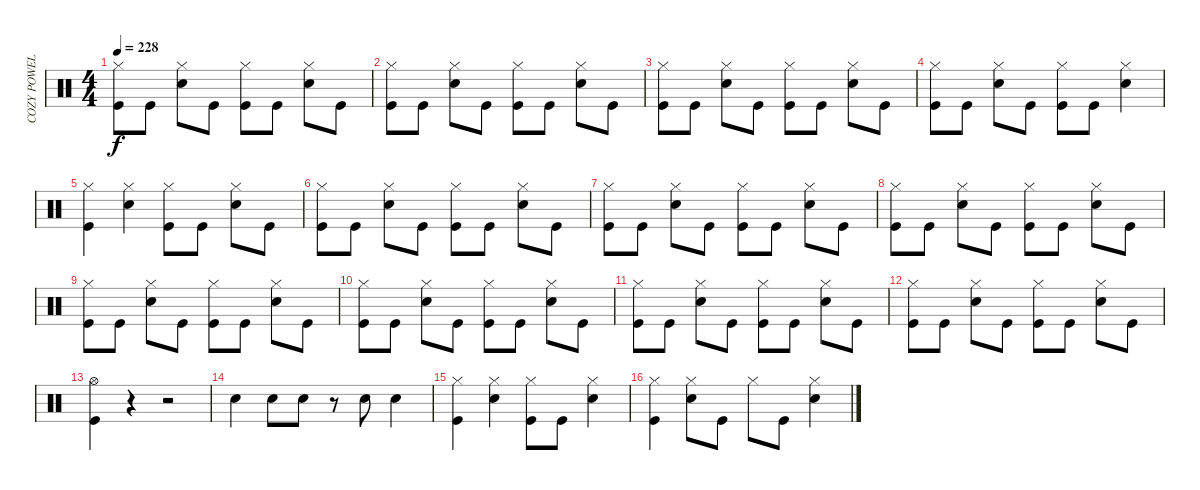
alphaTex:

\track ("COZY POWELL" "COZY POWEL") {instrument percussion}
\staff {score}
\articulation defaults
\ts (4 4)
\tempo 228
\clef neutral
\ks c
("Hi-Hat (closed)" "Kick (hit)").8{dy f} "Kick (hit)".8 ("Hi-Hat (closed)" "Snare (hit) 2").8 "Kick (hit)".8 ("Hi-Hat (closed)" "Kick (hit)").8 "Kick (hit)".8 ("Hi-Hat (closed)" "Snare (hit) 2").8 "Kick (hit)".8 |
("Hi-Hat (closed)" "Kick (hit)").8 "Kick (hit)".8 ("Hi-Hat (closed)" "Snare (hit) 2").8 "Kick (hit)".8 ("Hi-Hat (closed)" "Kick (hit)").8 "Kick (hit)".8 ("Hi-Hat (closed)" "Snare (hit) 2").8 "Kick (hit)".8 |
("Hi-Hat (closed)" "Kick (hit)").8 "Kick (hit)".8 ("Hi-Hat (closed)" "Snare (hit) 2").8 "Kick (hit)".8 ("Hi-Hat (closed)" "Kick (hit)").8 "Kick (hit)".8 ("Hi-Hat (closed)" "Snare (hit) 2").8 "Kick (hit)".8 |
("Hi-Hat (closed)" "Kick (hit)").8 "Kick (hit)".8 ("Hi-Hat (closed)" "Snare (hit) 2").8 "Kick (hit)".8 ("Hi-Hat (closed)" "Kick (hit)").8 "Kick (hit)".8 ("Hi-Hat (closed)" "Snare (hit) 2").4 |
("Hi-Hat (closed)" "Kick (hit)").4 ("Hi-Hat (closed)" "Snare (hit) 2").4 ("Hi-Hat (closed)" "Kick (hit)").8 "Kick (hit)".8 ("Hi-Hat (closed)" "Snare (hit) 2").8 "Kick (hit)".8 |
("Hi-Hat (closed)" "Kick (hit)").8 "Kick (hit)".8 ("Hi-Hat (closed)" "Snare (hit) 2").8 "Kick (hit)".8 ("Hi-Hat (closed)" "Kick (hit)").8 "Kick (hit)".8 ("Hi-Hat (closed)" "Snare (hit) 2").8 "Kick (hit)".8 |
("Hi-Hat (closed)" "Kick (hit)").8 "Kick (hit)".8 ("Hi-Hat (closed)" "Snare (hit) 2").8 "Kick (hit)".8 ("Hi-Hat (closed)" "Kick (hit)").8 "Kick (hit)".8 ("Hi-Hat (closed)" "Snare (hit) 2").8 "Kick (hit)".8 |
("Hi-Hat (closed)" "Kick (hit)").8 "Kick (hit)".8 ("Hi-Hat (closed)" "Snare (hit) 2").8 "Kick (hit)".8 ("Hi-Hat (closed)" "Kick (hit)").8 "Kick (hit)".8 ("Hi-Hat (closed)" "Snare (hit) 2").8 "Kick (hit)".8 |
("Hi-Hat (closed)" "Kick (hit)").8 "Kick (hit)".8 ("Hi-Hat (closed)" "Snare (hit) 2").8 "Kick (hit)".8 ("Hi-Hat (closed)" "Kick (hit)").8 "Kick (hit)".8 ("Hi-Hat (closed)" "Snare (hit) 2").8 "Kick (hit)".8 |
("Hi-Hat (closed)" "Kick (hit)").8 "Kick (hit)".8 ("Hi-Hat (closed)" "Snare (hit) 2").8 "Kick (hit)".8 ("Hi-Hat (closed)" "Kick (hit)").8 "Kick (hit)".8 ("Hi-Hat (closed)" "Snare (hit) 2").8 "Kick (hit)".8 |
("Hi-Hat (closed)" "Kick (hit)").8 "Kick (hit)".8 ("Hi-Hat (closed)" "Snare (hit) 2").8 "Kick (hit)".8 ("Hi-Hat (closed)" "Kick (hit)").8 "Kick (hit)".8 ("Hi-Hat (closed)" "Snare (hit) 2").8 "Kick (hit)".8 |
("Hi-Hat (closed)" "Kick (hit)").8 "Kick (hit)".8 ("Hi-Hat (closed)" "Snare (hit) 2").8 "Kick (hit)".8 ("Hi-Hat (closed)" "Kick (hit)").8 "Kick (hit)".8 ("Hi-Hat (closed)" "Snare (hit) 2").8 "Kick (hit)".8 |
("Hi-Hat (open)" "Kick (hit)").4 r.4 r.2 |
"Snare (hit) 2".4 "Snare (hit) 2".8 "Snare (hit) 2".8 r.8 "Snare (hit) 2".8 "Snare (hit) 2".4 |
("Hi-Hat (closed)" "Kick (hit)").4 ("Hi-Hat (closed)" "Snare (hit) 2").4 ("Hi-Hat (closed)" "Kick (hit)").8 "Kick (hit)".8 ("Hi-Hat (closed)" "Snare (hit) 2").4 |
("Hi-Hat (closed)" "Kick (hit)").4 ("Hi-Hat (closed)" "Snare (hit) 2").8 "Kick (hit)".8 "Hi-Hat (closed)".8 "Kick (hit)".8 ("Hi-Hat (closed)" "Snare (hit) 2").4
